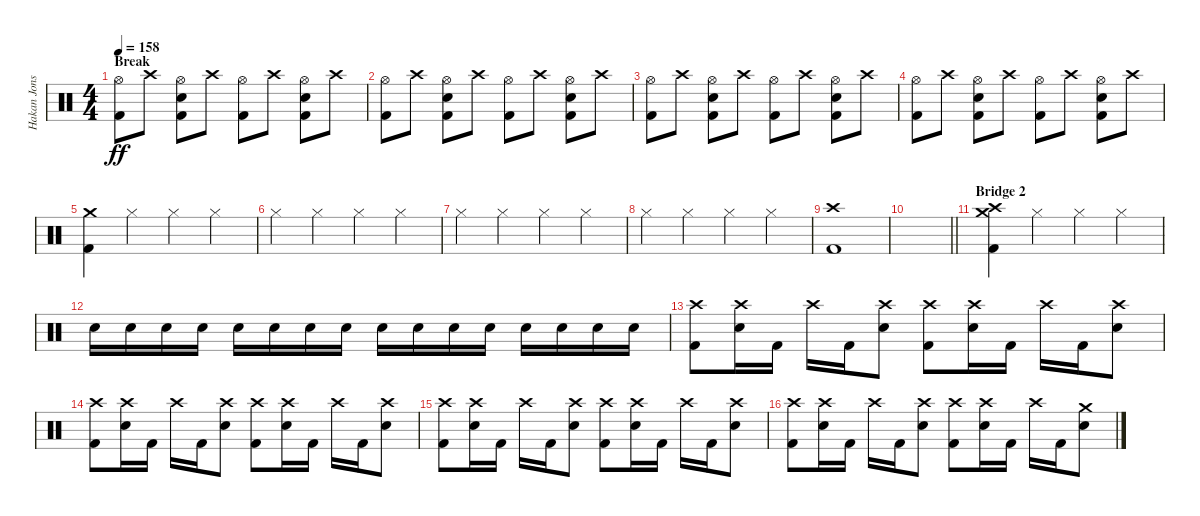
\track ("Hakan Jonsson" "Hakan Jons") {instrument percussion}
\staff {score}
\articulation defaults
\ts (4 4)
\section ("" "Break")
\tempo 158
\clef neutral
\ks c
("Hi-Hat (open)" "Kick (hit) 2").8{dy ff} "Crash high (hit)".8 ("Hi-Hat (open)" "Electric Snare (hit)" "Kick (hit) 2").8 "Crash high (hit)".8 ("Hi-Hat (open)" "Kick (hit) 2").8 "Crash high (hit)".8 ("Hi-Hat (open)" "Electric Snare (hit)" "Kick (hit) 2").8 "Crash high (hit)".8 |
("Hi-Hat (open)" "Kick (hit) 2").8 "Crash high (hit)".8 ("Hi-Hat (open)" "Electric Snare (hit)" "Kick (hit) 2").8 "Crash high (hit)".8 ("Hi-Hat (open)" "Kick (hit) 2").8 "Crash high (hit)".8 ("Hi-Hat (open)" "Electric Snare (hit)" "Kick (hit) 2").8 "Crash high (hit)".8 |
("Hi-Hat (open)" "Kick (hit) 2").8 "Crash high (hit)".8 ("Hi-Hat (open)" "Electric Snare (hit)" "Kick (hit) 2").8 "Crash high (hit)".8 ("Hi-Hat (open)" "Kick (hit) 2").8 "Crash high (hit)".8 ("Hi-Hat (open)" "Electric Snare (hit)" "Kick (hit) 2").8 "Crash high (hit)".8 |
("Hi-Hat (open)" "Kick (hit) 2").8 "Crash high (hit)".8 ("Hi-Hat (open)" "Electric Snare (hit)" "Kick (hit) 2").8 "Crash high (hit)".8 ("Hi-Hat (open)" "Kick (hit) 2").8 "Crash high (hit)".8 ("Hi-Hat (open)" "Electric Snare (hit)" "Kick (hit) 2").8 "Crash high (hit)".8 |
("Crash medium (hit)" "Kick (hit) 2").4 "Hi-Hat (closed)".4 "Hi-Hat (closed)".4 "Hi-Hat (closed)".4 |
"Hi-Hat (closed)".4 "Hi-Hat (closed)".4 "Hi-Hat (closed)".4 "Hi-Hat (closed)".4 |
"Hi-Hat (closed)".4 "Hi-Hat (closed)".4 "Hi-Hat (closed)".4 "Hi-Hat (closed)".4 |
"Hi-Hat (closed)".4 "Hi-Hat (closed)".4 "Hi-Hat (closed)".4 "Hi-Hat (closed)".4 |
("Crash high (hit)" "Kick (hit) 2").1 |
\barLineRight lightlight
|
\section ("" "Bridge 2")
("Crash medium (hit)" "Crash high (hit)" "Kick (hit) 2").4 "Hi-Hat (closed)".4 "Hi-Hat (closed)".4 "Hi-Hat (closed)".4 |
"Electric Snare (hit)".16 "Electric Snare (hit)".16 "Electric Snare (hit)".16 "Electric Snare (hit)".16 "Electric Snare (hit)".16 "Electric Snare (hit)".16 "Electric Snare (hit)".16 "Electric Snare (hit)".16 "Electric Snare (hit)".16 "Electric Snare (hit)".16 "Electric Snare (hit)".16 "Electric Snare (hit)".16 "Electric Snare (hit)".16 "Electric Snare (hit)".16 "Electric Snare (hit)".16 "Electric Snare (hit)".16 |
("Crash high (hit)" "Kick (hit) 2").8 ("Crash high (hit)" "Electric Snare (hit)").16 "Kick (hit) 2".16 "Crash high (hit)".16 "Kick (hit) 2".16 ("Crash high (hit)" "Electric Snare (hit)").8 ("Crash high (hit)" "Kick (hit) 2").8 ("Crash high (hit)" "Electric Snare (hit)").16 "Kick (hit) 2".16 "Crash high (hit)".16 "Kick (hit) 2".16 ("Crash high (hit)" "Electric Snare (hit)").8 |
("Crash high (hit)" "Kick (hit) 2").8 ("Crash high (hit)" "Electric Snare (hit)").16 "Kick (hit) 2".16 "Crash high (hit)".16 "Kick (hit) 2".16 ("Crash high (hit)" "Electric Snare (hit)").8 ("Crash high (hit)" "Kick (hit) 2").8 ("Crash high (hit)" "Electric Snare (hit)").16 "Kick (hit) 2".16 "Crash high (hit)".16 "Kick (hit) 2".16 ("Crash high (hit)" "Electric Snare (hit)").8 |
("Crash high (hit)" "Kick (hit) 2").8 ("Crash high (hit)" "Electric Snare (hit)").16 "Kick (hit) 2".16 "Crash high (hit)".16 "Kick (hit) 2".16 ("Crash high (hit)" "Electric Snare (hit)").8 ("Crash high (hit)" "Kick (hit) 2").8 ("Crash high (hit)" "Electric Snare (hit)").16 "Kick (hit) 2".16 "Crash high (hit)".16 "Kick (hit) 2".16 ("Crash high (hit)" "Electric Snare (hit)").8 |
("Crash high (hit)" "Kick (hit) 2").8 ("Crash high (hit)" "Electric Snare (hit)").16 "Kick (hit) 2".16 "Crash high (hit)".16 "Kick (hit) 2".16 ("Crash high (hit)" "Electric Snare (hit)").8 ("Crash high (hit)" "Kick (hit) 2").8 ("Crash high (hit)" "Electric Snare (hit)").16 "Kick (hit) 2".16 "Crash high (hit)".16 "Kick (hit) 2".16 ("Crash medium (hit)" "Electric Snare (hit)").8
